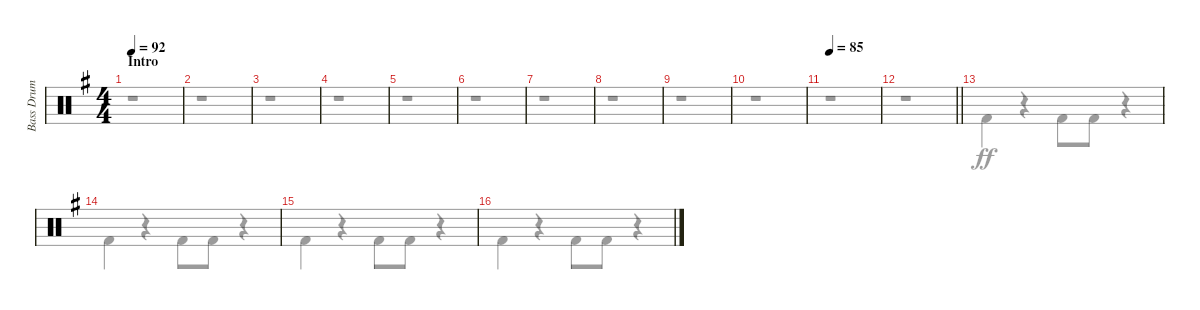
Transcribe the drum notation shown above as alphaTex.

\track ("Bass Drum" "Bass Drum") {instrument percussion}
\staff {score}
\articulation defaults
\voice
\ts (4 4)
\section ("" "Intro")
\tempo 92
\clef neutral
\ks g
|
|
|
|
|
|
|
|
|
|
\tempo 85
|
\barLineRight lightlight
|
|
|
|
\voice
\clef neutral
\ks g
r.1{dy ff} |
r.1 |
r.1 |
r.1 |
r.1 |
r.1 |
r.1 |
r.1 |
r.1 |
r.1 |
r.1 |
\barLineRight lightlight
r.1 |
"Kick (hit) 2".4 r.4 "Kick (hit) 2".8 "Kick (hit) 2".8 r.4 |
"Kick (hit) 2".4 r.4 "Kick (hit) 2".8 "Kick (hit) 2".8 r.4 |
"Kick (hit) 2".4 r.4 "Kick (hit) 2".8 "Kick (hit) 2".8 r.4 |
"Kick (hit) 2".4 r.4 "Kick (hit) 2".8 "Kick (hit) 2".8 r.4
